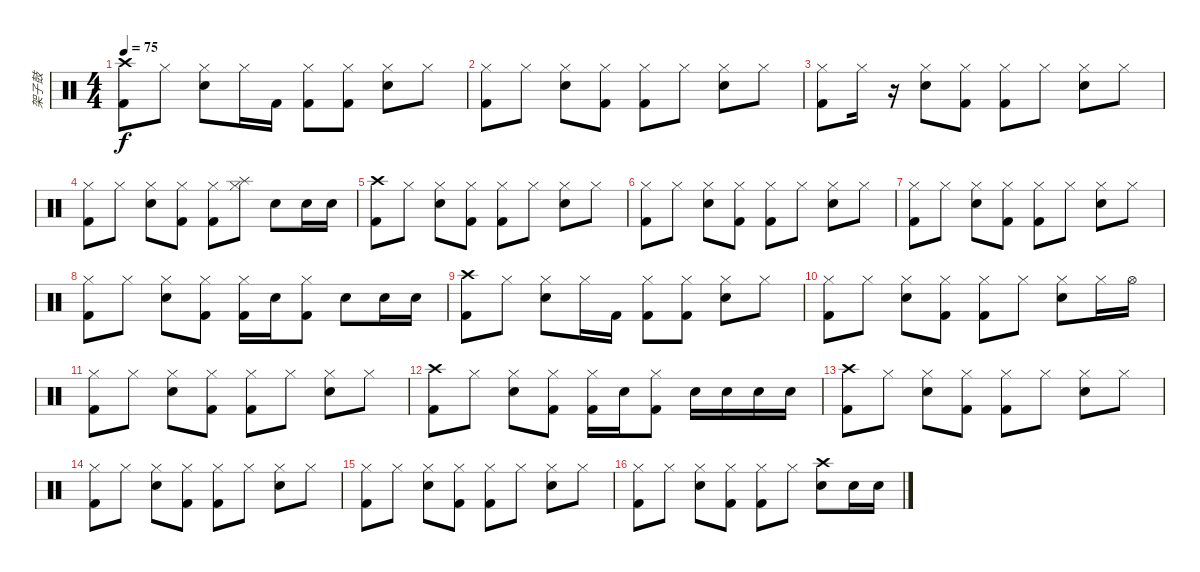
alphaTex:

\track ("架子鼓" "架子鼓") {instrument percussion}
\staff {score}
\articulation defaults
\ts (4 4)
\tempo 75
\clef neutral
\ks c
("Crash high (hit)" "Kick (hit) 2").8{dy f} "Hi-Hat (closed)".8 ("Hi-Hat (closed)" "Electric Snare (hit)").8 "Hi-Hat (closed)".16 "Kick (hit) 2".16 ("Hi-Hat (closed)" "Kick (hit) 2").8 ("Hi-Hat (closed)" "Kick (hit) 2").8 ("Hi-Hat (closed)" "Electric Snare (hit)").8 "Hi-Hat (closed)".8 |
("Hi-Hat (closed)" "Kick (hit) 2").8 "Hi-Hat (closed)".8 ("Hi-Hat (closed)" "Electric Snare (hit)").8 ("Hi-Hat (closed)" "Kick (hit) 2").8 ("Hi-Hat (closed)" "Kick (hit) 2").8 "Hi-Hat (closed)".8 ("Hi-Hat (closed)" "Electric Snare (hit)").8 "Hi-Hat (closed)".8 |
("Hi-Hat (closed)" "Kick (hit) 2").8 "Hi-Hat (closed)".16 r.16 ("Hi-Hat (closed)" "Electric Snare (hit)").8 ("Hi-Hat (closed)" "Kick (hit) 2").8 ("Hi-Hat (closed)" "Kick (hit) 2").8 "Hi-Hat (closed)".8 ("Hi-Hat (closed)" "Electric Snare (hit)").8 "Hi-Hat (closed)".8 |
("Hi-Hat (closed)" "Kick (hit) 2").8 "Hi-Hat (closed)".8 ("Hi-Hat (closed)" "Electric Snare (hit)").8 ("Hi-Hat (closed)" "Kick (hit) 2").8 ("Hi-Hat (closed)" "Kick (hit) 2").8 ("Hi-Hat (closed)" "Splash (hit)").8 "Electric Snare (hit)".8 "Electric Snare (hit)".16 "Electric Snare (hit)".16 |
("Crash high (hit)" "Kick (hit) 2").8 "Hi-Hat (closed)".8 ("Hi-Hat (closed)" "Electric Snare (hit)").8 ("Hi-Hat (closed)" "Kick (hit) 2").8 ("Hi-Hat (closed)" "Kick (hit) 2").8 "Hi-Hat (closed)".8 ("Hi-Hat (closed)" "Electric Snare (hit)").8 "Hi-Hat (closed)".8 |
("Hi-Hat (closed)" "Kick (hit) 2").8 "Hi-Hat (closed)".8 ("Hi-Hat (closed)" "Electric Snare (hit)").8 ("Hi-Hat (closed)" "Kick (hit) 2").8 ("Hi-Hat (closed)" "Kick (hit) 2").8 "Hi-Hat (closed)".8 ("Hi-Hat (closed)" "Electric Snare (hit)").8 "Hi-Hat (closed)".8 |
("Hi-Hat (closed)" "Kick (hit) 2").8 "Hi-Hat (closed)".8 ("Hi-Hat (closed)" "Electric Snare (hit)").8 ("Hi-Hat (closed)" "Kick (hit) 2").8 ("Hi-Hat (closed)" "Kick (hit) 2").8 "Hi-Hat (closed)".8 ("Hi-Hat (closed)" "Electric Snare (hit)").8 "Hi-Hat (closed)".8 |
("Hi-Hat (closed)" "Kick (hit) 2").8 "Hi-Hat (closed)".8 ("Hi-Hat (closed)" "Electric Snare (hit)").8 ("Hi-Hat (closed)" "Kick (hit) 2").8 ("Hi-Hat (closed)" "Kick (hit) 2").16 "Electric Snare (hit)".16 ("Hi-Hat (closed)" "Kick (hit) 2").8 "Electric Snare (hit)".8 "Electric Snare (hit)".16 "Electric Snare (hit)".16 |
("Crash high (hit)" "Kick (hit) 2").8 "Hi-Hat (closed)".8 ("Hi-Hat (closed)" "Electric Snare (hit)").8 "Hi-Hat (closed)".16 "Kick (hit) 2".16 ("Hi-Hat (closed)" "Kick (hit) 2").8 ("Hi-Hat (closed)" "Kick (hit) 2").8 ("Hi-Hat (closed)" "Electric Snare (hit)").8 "Hi-Hat (closed)".8 |
("Hi-Hat (closed)" "Kick (hit) 2").8 "Hi-Hat (closed)".8 ("Hi-Hat (closed)" "Electric Snare (hit)").8 ("Hi-Hat (closed)" "Kick (hit) 2").8 ("Hi-Hat (closed)" "Kick (hit) 2").8 "Hi-Hat (closed)".8 ("Hi-Hat (closed)" "Electric Snare (hit)").8 "Hi-Hat (closed)".16 "Hi-Hat (open)".16 |
("Hi-Hat (closed)" "Kick (hit) 2").8 "Hi-Hat (closed)".8 ("Hi-Hat (closed)" "Electric Snare (hit)").8 ("Hi-Hat (closed)" "Kick (hit) 2").8 ("Hi-Hat (closed)" "Kick (hit) 2").8 "Hi-Hat (closed)".8 ("Hi-Hat (closed)" "Electric Snare (hit)").8 "Hi-Hat (closed)".8 |
("Kick (hit) 2" "Crash high (hit)").8 "Hi-Hat (closed)".8 ("Hi-Hat (closed)" "Electric Snare (hit)").8 ("Hi-Hat (closed)" "Kick (hit) 2").8 ("Hi-Hat (closed)" "Kick (hit) 2").16 "Electric Snare (hit)".16 ("Hi-Hat (closed)" "Kick (hit) 2").8 "Electric Snare (hit)".16 "Electric Snare (hit)".16 "Electric Snare (hit)".16 "Electric Snare (hit)".16 |
("Crash high (hit)" "Kick (hit) 2").8 "Hi-Hat (closed)".8 ("Hi-Hat (closed)" "Electric Snare (hit)").8 ("Hi-Hat (closed)" "Kick (hit) 2").8 ("Hi-Hat (closed)" "Kick (hit) 2").8 "Hi-Hat (closed)".8 ("Hi-Hat (closed)" "Electric Snare (hit)").8 "Hi-Hat (closed)".8 |
("Hi-Hat (closed)" "Kick (hit) 2").8 "Hi-Hat (closed)".8 ("Hi-Hat (closed)" "Electric Snare (hit)").8 ("Hi-Hat (closed)" "Kick (hit) 2").8 ("Hi-Hat (closed)" "Kick (hit) 2").8 "Hi-Hat (closed)".8 ("Hi-Hat (closed)" "Electric Snare (hit)").8 "Hi-Hat (closed)".8 |
("Hi-Hat (closed)" "Kick (hit) 2").8 "Hi-Hat (closed)".8 ("Hi-Hat (closed)" "Electric Snare (hit)").8 ("Hi-Hat (closed)" "Kick (hit) 2").8 ("Hi-Hat (closed)" "Kick (hit) 2").8 "Hi-Hat (closed)".8 ("Hi-Hat (closed)" "Electric Snare (hit)").8 "Hi-Hat (closed)".8 |
("Hi-Hat (closed)" "Kick (hit) 2").8 "Hi-Hat (closed)".8 ("Hi-Hat (closed)" "Electric Snare (hit)").8 ("Hi-Hat (closed)" "Kick (hit) 2").8 ("Hi-Hat (closed)" "Kick (hit) 2").8 "Hi-Hat (closed)".8 ("Electric Snare (hit)" "Crash high (hit)").8 "Electric Snare (hit)".16 "Electric Snare (hit)".16
